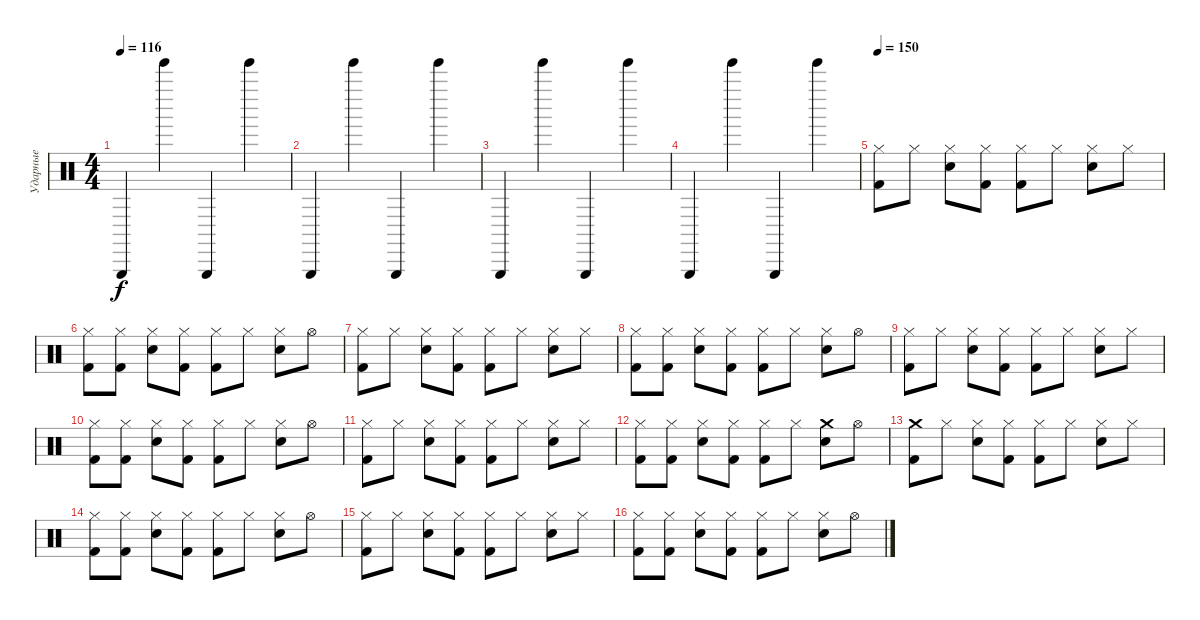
\track ("Ударные" "Ударные") {instrument percussion}
\staff {score}
\articulation defaults
\ts (4 4)
\tempo 116
\clef neutral
\ks c "Triangle (hit)".4{dy f} "Tinkle Bell (hit)".4 "Triangle (hit)".4 "Tinkle Bell (hit)".4
|
"Triangle (hit)".4 "Tinkle Bell (hit)".4 "Triangle (hit)".4 "Tinkle Bell (hit)".4 |
"Triangle (hit)".4 "Tinkle Bell (hit)".4 "Triangle (hit)".4 "Tinkle Bell (hit)".4 |
"Triangle (hit)".4 "Tinkle Bell (hit)".4 "Triangle (hit)".4 "Tinkle Bell (hit)".4 |
\tempo 150
("Hi-Hat (closed)" "Kick (hit) 2").8 "Hi-Hat (closed)".8 ("Hi-Hat (closed)" "Snare (hit) 2").8 ("Hi-Hat (closed)" "Kick (hit) 2").8 ("Hi-Hat (closed)" "Kick (hit) 2").8 "Hi-Hat (closed)".8 ("Hi-Hat (closed)" "Snare (hit) 2").8 "Hi-Hat (closed)".8 |
("Hi-Hat (closed)" "Kick (hit) 2").8 ("Hi-Hat (closed)" "Kick (hit) 2").8 ("Hi-Hat (closed)" "Snare (hit) 2").8 ("Hi-Hat (closed)" "Kick (hit) 2").8 ("Hi-Hat (closed)" "Kick (hit) 2").8 "Hi-Hat (closed)".8 ("Hi-Hat (closed)" "Snare (hit) 2").8 "Hi-Hat (open)".8 |
("Hi-Hat (closed)" "Kick (hit) 2").8 "Hi-Hat (closed)".8 ("Hi-Hat (closed)" "Snare (hit) 2").8 ("Hi-Hat (closed)" "Kick (hit) 2").8 ("Hi-Hat (closed)" "Kick (hit) 2").8 "Hi-Hat (closed)".8 ("Hi-Hat (closed)" "Snare (hit) 2").8 "Hi-Hat (closed)".8 |
("Hi-Hat (closed)" "Kick (hit) 2").8 ("Hi-Hat (closed)" "Kick (hit) 2").8 ("Hi-Hat (closed)" "Snare (hit) 2").8 ("Hi-Hat (closed)" "Kick (hit) 2").8 ("Hi-Hat (closed)" "Kick (hit) 2").8 "Hi-Hat (closed)".8 ("Hi-Hat (closed)" "Snare (hit) 2").8 "Hi-Hat (open)".8 |
("Hi-Hat (closed)" "Kick (hit) 2").8 "Hi-Hat (closed)".8 ("Hi-Hat (closed)" "Snare (hit) 2").8 ("Hi-Hat (closed)" "Kick (hit) 2").8 ("Hi-Hat (closed)" "Kick (hit) 2").8 "Hi-Hat (closed)".8 ("Hi-Hat (closed)" "Snare (hit) 2").8 "Hi-Hat (closed)".8 |
("Hi-Hat (closed)" "Kick (hit) 2").8 ("Hi-Hat (closed)" "Kick (hit) 2").8 ("Hi-Hat (closed)" "Snare (hit) 2").8 ("Hi-Hat (closed)" "Kick (hit) 2").8 ("Hi-Hat (closed)" "Kick (hit) 2").8 "Hi-Hat (closed)".8 ("Hi-Hat (closed)" "Snare (hit) 2").8 "Hi-Hat (open)".8 |
("Hi-Hat (closed)" "Kick (hit) 2").8 "Hi-Hat (closed)".8 ("Hi-Hat (closed)" "Snare (hit) 2").8 ("Hi-Hat (closed)" "Kick (hit) 2").8 ("Hi-Hat (closed)" "Kick (hit) 2").8 "Hi-Hat (closed)".8 ("Hi-Hat (closed)" "Snare (hit) 2").8 "Hi-Hat (closed)".8 |
("Hi-Hat (closed)" "Kick (hit) 2").8 ("Hi-Hat (closed)" "Kick (hit) 2").8 ("Hi-Hat (closed)" "Snare (hit) 2").8 ("Hi-Hat (closed)" "Kick (hit) 2").8 ("Hi-Hat (closed)" "Kick (hit) 2").8 "Hi-Hat (closed)".8 ("Crash medium (hit)" "Snare (hit) 2").8 "Hi-Hat (open)".8 |
("Crash medium (hit)" "Kick (hit) 2").8 "Hi-Hat (closed)".8 ("Hi-Hat (closed)" "Snare (hit) 2").8 ("Hi-Hat (closed)" "Kick (hit) 2").8 ("Hi-Hat (closed)" "Kick (hit) 2").8 "Hi-Hat (closed)".8 ("Hi-Hat (closed)" "Snare (hit) 2").8 "Hi-Hat (closed)".8 |
("Hi-Hat (closed)" "Kick (hit) 2").8 ("Hi-Hat (closed)" "Kick (hit) 2").8 ("Hi-Hat (closed)" "Snare (hit) 2").8 ("Hi-Hat (closed)" "Kick (hit) 2").8 ("Hi-Hat (closed)" "Kick (hit) 2").8 "Hi-Hat (closed)".8 ("Hi-Hat (closed)" "Snare (hit) 2").8 "Hi-Hat (open)".8 |
("Hi-Hat (closed)" "Kick (hit) 2").8 "Hi-Hat (closed)".8 ("Hi-Hat (closed)" "Snare (hit) 2").8 ("Hi-Hat (closed)" "Kick (hit) 2").8 ("Hi-Hat (closed)" "Kick (hit) 2").8 "Hi-Hat (closed)".8 ("Hi-Hat (closed)" "Snare (hit) 2").8 "Hi-Hat (closed)".8 |
("Hi-Hat (closed)" "Kick (hit) 2").8 ("Hi-Hat (closed)" "Kick (hit) 2").8 ("Hi-Hat (closed)" "Snare (hit) 2").8 ("Hi-Hat (closed)" "Kick (hit) 2").8 ("Hi-Hat (closed)" "Kick (hit) 2").8 "Hi-Hat (closed)".8 ("Hi-Hat (closed)" "Snare (hit) 2").8 "Hi-Hat (open)".8
